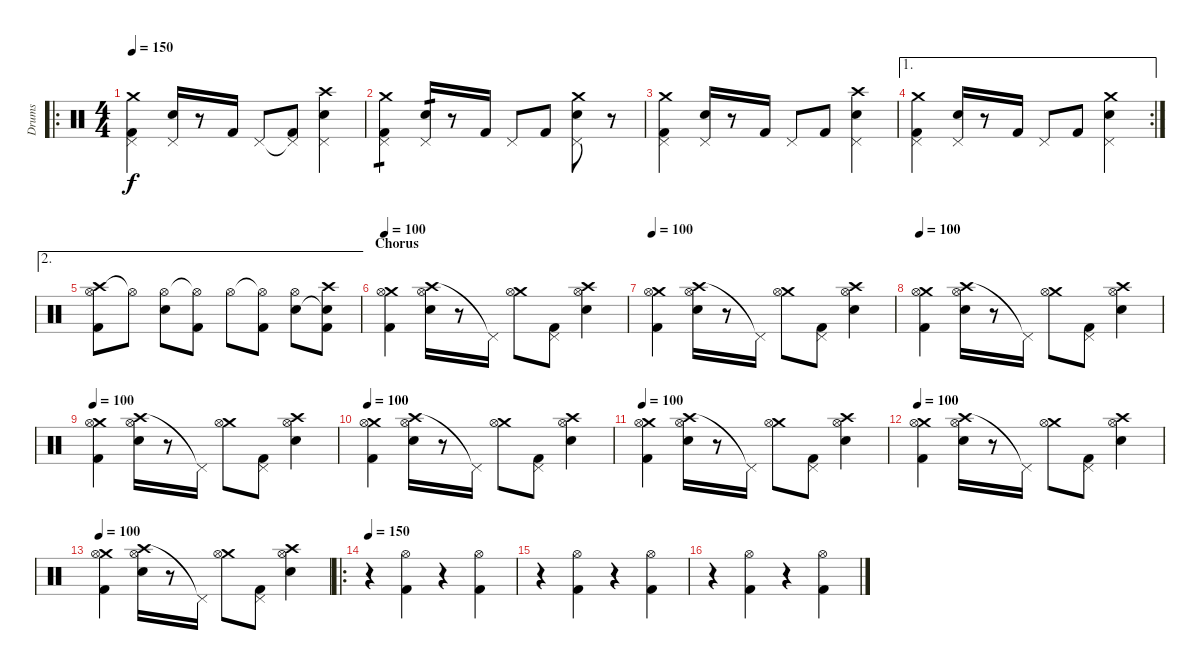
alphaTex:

\track ("Drums" "Drums") {instrument percussion}
\staff {score}
\articulation defaults
\ro
\ts (4 4)
\tempo 150
\clef neutral
\ks c
("Crash medium (hit)" "Pedal Hi-Hat (hit)" "Kick (hit) 2").4{dy f} ("Pedal Hi-Hat (hit)" "Electric Snare (hit)").16 r.8 "Kick (hit) 2".16 "Pedal Hi-Hat (hit)".8 ("Pedal Hi-Hat (hit)"{t} "Kick (hit) 2").8 ("Crash high (hit)" "Pedal Hi-Hat (hit)" "Electric Snare (hit)").4 |
("Crash medium (hit)" "Pedal Hi-Hat (hit)" "Kick (hit) 2").4{tp 1} ("Pedal Hi-Hat (hit)" "Electric Snare (hit)").16{tp 1} r.8 "Kick (hit) 2".16 "Pedal Hi-Hat (hit)".8 "Kick (hit) 2".8 ("Crash medium (hit)" "Pedal Hi-Hat (hit)" "Electric Snare (hit)").8 r.8 |
("Crash medium (hit)" "Pedal Hi-Hat (hit)" "Kick (hit) 2").4 ("Pedal Hi-Hat (hit)" "Electric Snare (hit)").16 r.8 "Kick (hit) 2".16 "Pedal Hi-Hat (hit)".8 "Kick (hit) 2".8 ("Crash high (hit)" "Pedal Hi-Hat (hit)" "Electric Snare (hit)").4 |
\ae 1
\rc 2
("Crash medium (hit)" "Pedal Hi-Hat (hit)" "Kick (hit) 2").4 ("Pedal Hi-Hat (hit)" "Electric Snare (hit)").16 r.8 "Kick (hit) 2".16 "Pedal Hi-Hat (hit)".8 "Kick (hit) 2".8 ("Crash medium (hit)" "Pedal Hi-Hat (hit)" "Electric Snare (hit)").4 |
\ae 2
("Crash high (hit)" "Hi-Hat (open)" "Kick (hit) 2").8 "Hi-Hat (open)"{t}.8 ("Hi-Hat (open)" "Snare (hit) 2").8 ("Hi-Hat (open)"{t} "Kick (hit) 2").8 "Hi-Hat (open)".8 ("Hi-Hat (open)"{t} "Kick (hit) 2").8 ("Hi-Hat (open)" "Snare (hit) 2").8 ("Crash high (hit)" "Snare (hit)"{t} "Kick (hit) 2").8 |
\section ("" "Chorus")
\tempo 100
("Crash medium (hit)" "Hi-Hat (open)" "Kick (hit) 2").4 ("Crash high (hit)" "Hi-Hat (open)" "Electric Snare (hit)").16 r.8 "Pedal Hi-Hat (hit)"{t}.16 ("Crash medium (hit)" "Hi-Hat (open)").8 ("Pedal Hi-Hat (hit)" "Kick (hit) 2").8 ("Crash high (hit)" "Hi-Hat (open)" "Electric Snare (hit)").4 |
\tempo 100
("Crash medium (hit)" "Hi-Hat (open)" "Kick (hit) 2").4 ("Crash high (hit)" "Hi-Hat (open)" "Electric Snare (hit)").16 r.8 "Pedal Hi-Hat (hit)"{t}.16 ("Crash medium (hit)" "Hi-Hat (open)").8 ("Pedal Hi-Hat (hit)" "Kick (hit) 2").8 ("Crash high (hit)" "Hi-Hat (open)" "Electric Snare (hit)").4 |
\tempo 100
("Crash medium (hit)" "Hi-Hat (open)" "Kick (hit) 2").4 ("Crash high (hit)" "Hi-Hat (open)" "Electric Snare (hit)").16 r.8 "Pedal Hi-Hat (hit)"{t}.16 ("Crash medium (hit)" "Hi-Hat (open)").8 ("Pedal Hi-Hat (hit)" "Kick (hit) 2").8 ("Crash high (hit)" "Hi-Hat (open)" "Electric Snare (hit)").4 |
\tempo 100
("Crash medium (hit)" "Hi-Hat (open)" "Kick (hit) 2").4 ("Crash high (hit)" "Hi-Hat (open)" "Electric Snare (hit)").16 r.8 "Pedal Hi-Hat (hit)"{t}.16 ("Crash medium (hit)" "Hi-Hat (open)").8 ("Pedal Hi-Hat (hit)" "Kick (hit) 2").8 ("Crash high (hit)" "Hi-Hat (open)" "Electric Snare (hit)").4 |
\tempo 100
("Crash medium (hit)" "Hi-Hat (open)" "Kick (hit) 2").4 ("Crash high (hit)" "Hi-Hat (open)" "Electric Snare (hit)").16 r.8 "Pedal Hi-Hat (hit)"{t}.16 ("Crash medium (hit)" "Hi-Hat (open)").8 ("Pedal Hi-Hat (hit)" "Kick (hit) 2").8 ("Crash high (hit)" "Hi-Hat (open)" "Electric Snare (hit)").4 |
\tempo 100
("Crash medium (hit)" "Hi-Hat (open)" "Kick (hit) 2").4 ("Crash high (hit)" "Hi-Hat (open)" "Electric Snare (hit)").16 r.8 "Pedal Hi-Hat (hit)"{t}.16 ("Crash medium (hit)" "Hi-Hat (open)").8 ("Pedal Hi-Hat (hit)" "Kick (hit) 2").8 ("Crash high (hit)" "Hi-Hat (open)" "Electric Snare (hit)").4 |
\tempo 100
("Crash medium (hit)" "Hi-Hat (open)" "Kick (hit) 2").4 ("Crash high (hit)" "Hi-Hat (open)" "Electric Snare (hit)").16 r.8 "Pedal Hi-Hat (hit)"{t}.16 ("Crash medium (hit)" "Hi-Hat (open)").8 ("Pedal Hi-Hat (hit)" "Kick (hit) 2").8 ("Crash high (hit)" "Hi-Hat (open)" "Electric Snare (hit)").4 |
\tempo 100
("Crash medium (hit)" "Hi-Hat (open)" "Kick (hit) 2").4 ("Crash high (hit)" "Hi-Hat (open)" "Electric Snare (hit)").16 r.8 "Pedal Hi-Hat (hit)"{t}.16 ("Crash medium (hit)" "Hi-Hat (open)").8 ("Pedal Hi-Hat (hit)" "Kick (hit) 2").8 ("Crash high (hit)" "Hi-Hat (open)" "Electric Snare (hit)").4 |
\ro
\tempo 150
r.4 ("Hi-Hat (open)" "Kick (hit) 2").4 r.4 ("Hi-Hat (open)" "Kick (hit) 2").4 |
r.4 ("Hi-Hat (open)" "Kick (hit) 2").4 r.4 ("Hi-Hat (open)" "Kick (hit) 2").4 |
r.4 ("Hi-Hat (open)" "Kick (hit) 2").4 r.4 ("Hi-Hat (open)" "Kick (hit) 2").4
